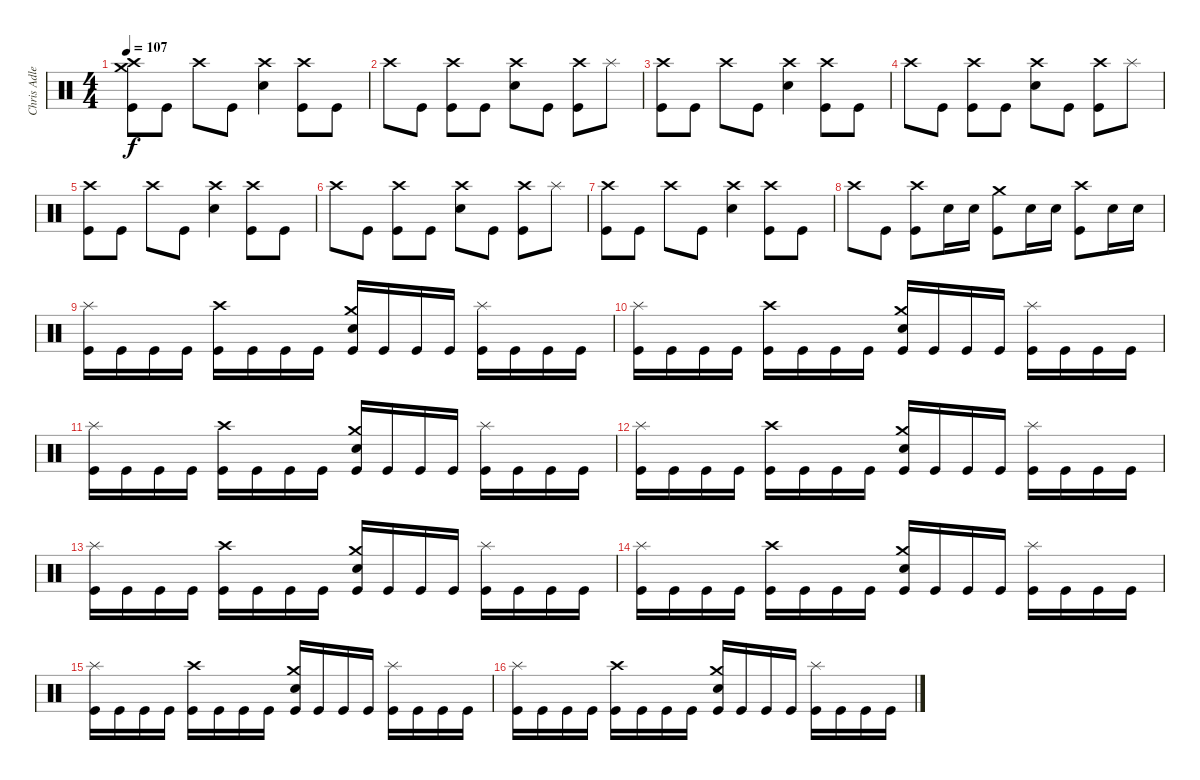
\track ("Chris Adler" "Chris Adle") {instrument percussion}
\staff {score}
\articulation defaults
\ts (4 4)
\tempo 107
\clef neutral
\ks c
("Kick (hit)" "Crash medium (hit)" "Crash high (hit)").8{dy f} "Kick (hit)".8 "Crash high (hit)".8 "Kick (hit)".8 ("Snare (hit) 2" "Crash high (hit)").4 ("Crash high (hit)" "Kick (hit)").8 "Kick (hit)".8 |
"Crash high (hit)".8 "Kick (hit)".8 ("Kick (hit)" "Crash high (hit)").8 "Kick (hit)".8 ("Snare (hit) 2" "Crash high (hit)").8 "Kick (hit)".8 ("Kick (hit)" "Crash high (hit)").8 "Splash (hit)".8 |
("Kick (hit)" "Crash high (hit)").8 "Kick (hit)".8 "Crash high (hit)".8 "Kick (hit)".8 ("Snare (hit) 2" "Crash high (hit)").4 ("Crash high (hit)" "Kick (hit)").8 "Kick (hit)".8 |
"Crash high (hit)".8 "Kick (hit)".8 ("Kick (hit)" "Crash high (hit)").8 "Kick (hit)".8 ("Snare (hit) 2" "Crash high (hit)").8 "Kick (hit)".8 ("Kick (hit)" "Crash high (hit)").8 "Splash (hit)".8 |
("Kick (hit)" "Crash high (hit)").8 "Kick (hit)".8 "Crash high (hit)".8 "Kick (hit)".8 ("Snare (hit) 2" "Crash high (hit)").4 ("Crash high (hit)" "Kick (hit)").8 "Kick (hit)".8 |
"Crash high (hit)".8 "Kick (hit)".8 ("Kick (hit)" "Crash high (hit)").8 "Kick (hit)".8 ("Snare (hit) 2" "Crash high (hit)").8 "Kick (hit)".8 ("Kick (hit)" "Crash high (hit)").8 "Splash (hit)".8 |
("Kick (hit)" "Crash high (hit)").8 "Kick (hit)".8 "Crash high (hit)".8 "Kick (hit)".8 ("Snare (hit) 2" "Crash high (hit)").4 ("Crash high (hit)" "Kick (hit)").8 "Kick (hit)".8 |
"Crash high (hit)".8 "Kick (hit)".8 ("Kick (hit)" "Crash high (hit)").8 "Snare (hit) 2".16 "Snare (hit) 2".16 ("Crash medium (hit)" "Kick (hit)").8 "Snare (hit) 2".16 "Snare (hit) 2".16 ("Crash high (hit)" "Kick (hit)").8 "Snare (hit) 2".16 "Snare (hit) 2".16 |
("Kick (hit)" "Splash (hit)").16 "Kick (hit)".16 "Kick (hit)".16 "Kick (hit)".16 ("Kick (hit)" "Crash high (hit)").16 "Kick (hit)".16 "Kick (hit)".16 "Kick (hit)".16 ("Kick (hit)" "Crash medium (hit)" "Snare (hit) 2").16 "Kick (hit)".16 "Kick (hit)".16 "Kick (hit)".16 ("Kick (hit)" "Splash (hit)").16 "Kick (hit)".16 "Kick (hit)".16 "Kick (hit)".16 |
("Kick (hit)" "Splash (hit)").16 "Kick (hit)".16 "Kick (hit)".16 "Kick (hit)".16 ("Kick (hit)" "Crash high (hit)").16 "Kick (hit)".16 "Kick (hit)".16 "Kick (hit)".16 ("Kick (hit)" "Crash medium (hit)" "Snare (hit) 2").16 "Kick (hit)".16 "Kick (hit)".16 "Kick (hit)".16 ("Kick (hit)" "Splash (hit)").16 "Kick (hit)".16 "Kick (hit)".16 "Kick (hit)".16 |
("Kick (hit)" "Splash (hit)").16 "Kick (hit)".16 "Kick (hit)".16 "Kick (hit)".16 ("Kick (hit)" "Crash high (hit)").16 "Kick (hit)".16 "Kick (hit)".16 "Kick (hit)".16 ("Kick (hit)" "Crash medium (hit)" "Snare (hit) 2").16 "Kick (hit)".16 "Kick (hit)".16 "Kick (hit)".16 ("Kick (hit)" "Splash (hit)").16 "Kick (hit)".16 "Kick (hit)".16 "Kick (hit)".16 |
("Kick (hit)" "Splash (hit)").16 "Kick (hit)".16 "Kick (hit)".16 "Kick (hit)".16 ("Kick (hit)" "Crash high (hit)").16 "Kick (hit)".16 "Kick (hit)".16 "Kick (hit)".16 ("Kick (hit)" "Crash medium (hit)" "Snare (hit) 2").16 "Kick (hit)".16 "Kick (hit)".16 "Kick (hit)".16 ("Kick (hit)" "Splash (hit)").16 "Kick (hit)".16 "Kick (hit)".16 "Kick (hit)".16 |
("Kick (hit)" "Splash (hit)").16 "Kick (hit)".16 "Kick (hit)".16 "Kick (hit)".16 ("Kick (hit)" "Crash high (hit)").16 "Kick (hit)".16 "Kick (hit)".16 "Kick (hit)".16 ("Kick (hit)" "Crash medium (hit)" "Snare (hit) 2").16 "Kick (hit)".16 "Kick (hit)".16 "Kick (hit)".16 ("Kick (hit)" "Splash (hit)").16 "Kick (hit)".16 "Kick (hit)".16 "Kick (hit)".16 |
("Kick (hit)" "Splash (hit)").16 "Kick (hit)".16 "Kick (hit)".16 "Kick (hit)".16 ("Kick (hit)" "Crash high (hit)").16 "Kick (hit)".16 "Kick (hit)".16 "Kick (hit)".16 ("Kick (hit)" "Crash medium (hit)" "Snare (hit) 2").16 "Kick (hit)".16 "Kick (hit)".16 "Kick (hit)".16 ("Kick (hit)" "Splash (hit)").16 "Kick (hit)".16 "Kick (hit)".16 "Kick (hit)".16 |
("Kick (hit)" "Splash (hit)").16 "Kick (hit)".16 "Kick (hit)".16 "Kick (hit)".16 ("Kick (hit)" "Crash high (hit)").16 "Kick (hit)".16 "Kick (hit)".16 "Kick (hit)".16 ("Kick (hit)" "Crash medium (hit)" "Snare (hit) 2").16 "Kick (hit)".16 "Kick (hit)".16 "Kick (hit)".16 ("Kick (hit)" "Splash (hit)").16 "Kick (hit)".16 "Kick (hit)".16 "Kick (hit)".16 |
("Kick (hit)" "Splash (hit)").16 "Kick (hit)".16 "Kick (hit)".16 "Kick (hit)".16 ("Kick (hit)" "Crash high (hit)").16 "Kick (hit)".16 "Kick (hit)".16 "Kick (hit)".16 ("Kick (hit)" "Crash medium (hit)" "Snare (hit) 2").16 "Kick (hit)".16 "Kick (hit)".16 "Kick (hit)".16 ("Kick (hit)" "Splash (hit)").16 "Kick (hit)".16 "Kick (hit)".16 "Kick (hit)".16
